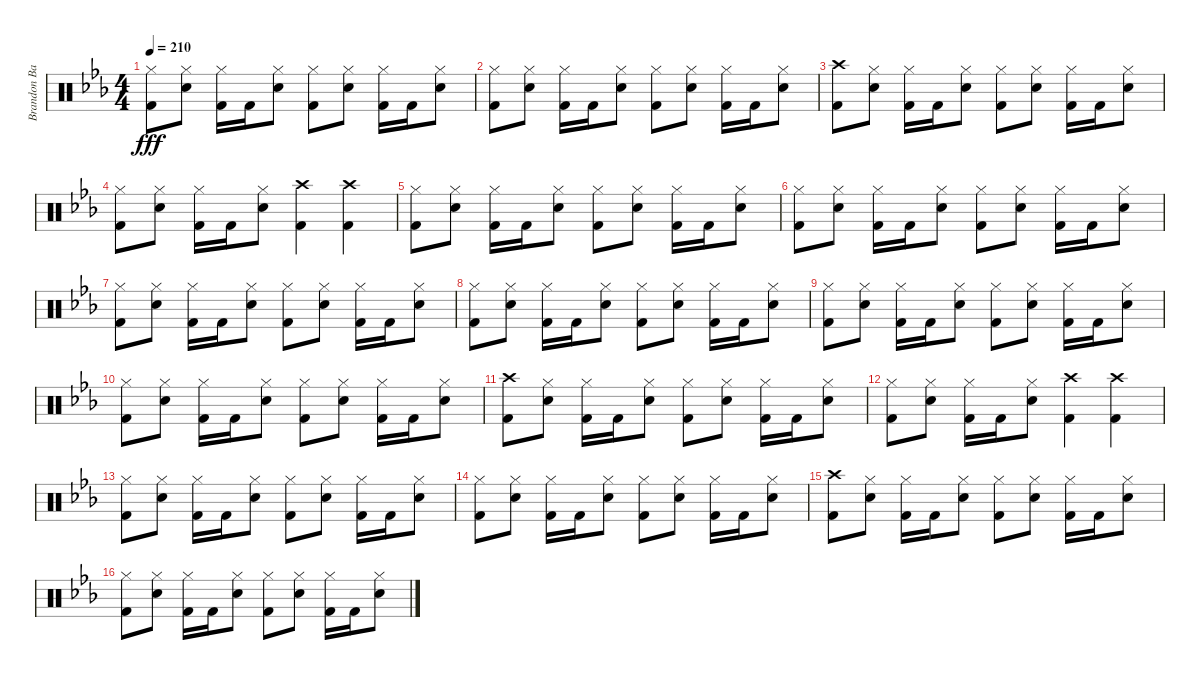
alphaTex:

\track ("Brandon Barnes" "Brandon Ba") {instrument percussion}
\staff {score}
\articulation defaults
\ts (4 4)
\tempo 210
\clef neutral
\ks eb
("Hi-Hat (closed)" "Kick (hit) 2").8{dy fff} ("Hi-Hat (closed)" "Snare (hit) 2").8 ("Hi-Hat (closed)" "Kick (hit) 2").16 "Kick (hit) 2".16 ("Hi-Hat (closed)" "Snare (hit) 2").8 ("Hi-Hat (closed)" "Kick (hit) 2").8 ("Hi-Hat (closed)" "Snare (hit) 2").8 ("Hi-Hat (closed)" "Kick (hit) 2").16 "Kick (hit) 2".16 ("Hi-Hat (closed)" "Snare (hit) 2").8 |
("Hi-Hat (closed)" "Kick (hit) 2").8 ("Hi-Hat (closed)" "Snare (hit) 2").8 ("Hi-Hat (closed)" "Kick (hit) 2").16 "Kick (hit) 2".16 ("Hi-Hat (closed)" "Snare (hit) 2").8 ("Hi-Hat (closed)" "Kick (hit) 2").8 ("Hi-Hat (closed)" "Snare (hit) 2").8 ("Hi-Hat (closed)" "Kick (hit) 2").16 "Kick (hit) 2".16 ("Hi-Hat (closed)" "Snare (hit) 2").8 |
("Crash high (hit)" "Kick (hit) 2").8 ("Hi-Hat (closed)" "Snare (hit) 2").8 ("Hi-Hat (closed)" "Kick (hit) 2").16 "Kick (hit) 2".16 ("Hi-Hat (closed)" "Snare (hit) 2").8 ("Hi-Hat (closed)" "Kick (hit) 2").8 ("Hi-Hat (closed)" "Snare (hit) 2").8 ("Hi-Hat (closed)" "Kick (hit) 2").16 "Kick (hit) 2".16 ("Hi-Hat (closed)" "Snare (hit) 2").8 |
("Hi-Hat (closed)" "Kick (hit) 2").8 ("Hi-Hat (closed)" "Snare (hit) 2").8 ("Hi-Hat (closed)" "Kick (hit) 2").16 "Kick (hit) 2".16 ("Hi-Hat (closed)" "Snare (hit) 2").8 ("Kick (hit) 2" "Crash high (hit)").4 ("Kick (hit) 2" "Crash high (hit)").4 |
("Hi-Hat (closed)" "Kick (hit) 2").8 ("Hi-Hat (closed)" "Snare (hit) 2").8 ("Hi-Hat (closed)" "Kick (hit) 2").16 "Kick (hit) 2".16 ("Hi-Hat (closed)" "Snare (hit) 2").8 ("Hi-Hat (closed)" "Kick (hit) 2").8 ("Hi-Hat (closed)" "Snare (hit) 2").8 ("Hi-Hat (closed)" "Kick (hit) 2").16 "Kick (hit) 2".16 ("Hi-Hat (closed)" "Snare (hit) 2").8 |
("Hi-Hat (closed)" "Kick (hit) 2").8 ("Hi-Hat (closed)" "Snare (hit) 2").8 ("Hi-Hat (closed)" "Kick (hit) 2").16 "Kick (hit) 2".16 ("Hi-Hat (closed)" "Snare (hit) 2").8 ("Hi-Hat (closed)" "Kick (hit) 2").8 ("Hi-Hat (closed)" "Snare (hit) 2").8 ("Hi-Hat (closed)" "Kick (hit) 2").16 "Kick (hit) 2".16 ("Hi-Hat (closed)" "Snare (hit) 2").8 |
("Hi-Hat (closed)" "Kick (hit) 2").8 ("Hi-Hat (closed)" "Snare (hit) 2").8 ("Hi-Hat (closed)" "Kick (hit) 2").16 "Kick (hit) 2".16 ("Hi-Hat (closed)" "Snare (hit) 2").8 ("Hi-Hat (closed)" "Kick (hit) 2").8 ("Hi-Hat (closed)" "Snare (hit) 2").8 ("Hi-Hat (closed)" "Kick (hit) 2").16 "Kick (hit) 2".16 ("Hi-Hat (closed)" "Snare (hit) 2").8 |
("Hi-Hat (closed)" "Kick (hit) 2").8 ("Hi-Hat (closed)" "Snare (hit) 2").8 ("Hi-Hat (closed)" "Kick (hit) 2").16 "Kick (hit) 2".16 ("Hi-Hat (closed)" "Snare (hit) 2").8 ("Hi-Hat (closed)" "Kick (hit) 2").8 ("Hi-Hat (closed)" "Snare (hit) 2").8 ("Hi-Hat (closed)" "Kick (hit) 2").16 "Kick (hit) 2".16 ("Hi-Hat (closed)" "Snare (hit) 2").8 |
("Hi-Hat (closed)" "Kick (hit) 2").8 ("Hi-Hat (closed)" "Snare (hit) 2").8 ("Hi-Hat (closed)" "Kick (hit) 2").16 "Kick (hit) 2".16 ("Hi-Hat (closed)" "Snare (hit) 2").8 ("Hi-Hat (closed)" "Kick (hit) 2").8 ("Hi-Hat (closed)" "Snare (hit) 2").8 ("Hi-Hat (closed)" "Kick (hit) 2").16 "Kick (hit) 2".16 ("Hi-Hat (closed)" "Snare (hit) 2").8 |
("Hi-Hat (closed)" "Kick (hit) 2").8 ("Hi-Hat (closed)" "Snare (hit) 2").8 ("Hi-Hat (closed)" "Kick (hit) 2").16 "Kick (hit) 2".16 ("Hi-Hat (closed)" "Snare (hit) 2").8 ("Hi-Hat (closed)" "Kick (hit) 2").8 ("Hi-Hat (closed)" "Snare (hit) 2").8 ("Hi-Hat (closed)" "Kick (hit) 2").16 "Kick (hit) 2".16 ("Hi-Hat (closed)" "Snare (hit) 2").8 |
("Crash high (hit)" "Kick (hit) 2").8 ("Hi-Hat (closed)" "Snare (hit) 2").8 ("Hi-Hat (closed)" "Kick (hit) 2").16 "Kick (hit) 2".16 ("Hi-Hat (closed)" "Snare (hit) 2").8 ("Hi-Hat (closed)" "Kick (hit) 2").8 ("Hi-Hat (closed)" "Snare (hit) 2").8 ("Hi-Hat (closed)" "Kick (hit) 2").16 "Kick (hit) 2".16 ("Hi-Hat (closed)" "Snare (hit) 2").8 |
("Hi-Hat (closed)" "Kick (hit) 2").8 ("Hi-Hat (closed)" "Snare (hit) 2").8 ("Hi-Hat (closed)" "Kick (hit) 2").16 "Kick (hit) 2".16 ("Hi-Hat (closed)" "Snare (hit) 2").8 ("Kick (hit) 2" "Crash high (hit)").4 ("Kick (hit) 2" "Crash high (hit)").4 |
("Hi-Hat (closed)" "Kick (hit) 2").8 ("Hi-Hat (closed)" "Snare (hit) 2").8 ("Hi-Hat (closed)" "Kick (hit) 2").16 "Kick (hit) 2".16 ("Hi-Hat (closed)" "Snare (hit) 2").8 ("Hi-Hat (closed)" "Kick (hit) 2").8 ("Hi-Hat (closed)" "Snare (hit) 2").8 ("Hi-Hat (closed)" "Kick (hit) 2").16 "Kick (hit) 2".16 ("Hi-Hat (closed)" "Snare (hit) 2").8 |
("Hi-Hat (closed)" "Kick (hit) 2").8 ("Hi-Hat (closed)" "Snare (hit) 2").8 ("Hi-Hat (closed)" "Kick (hit) 2").16 "Kick (hit) 2".16 ("Hi-Hat (closed)" "Snare (hit) 2").8 ("Hi-Hat (closed)" "Kick (hit) 2").8 ("Hi-Hat (closed)" "Snare (hit) 2").8 ("Hi-Hat (closed)" "Kick (hit) 2").16 "Kick (hit) 2".16 ("Hi-Hat (closed)" "Snare (hit) 2").8 |
("Crash high (hit)" "Kick (hit) 2").8 ("Hi-Hat (closed)" "Snare (hit) 2").8 ("Hi-Hat (closed)" "Kick (hit) 2").16 "Kick (hit) 2".16 ("Hi-Hat (closed)" "Snare (hit) 2").8 ("Hi-Hat (closed)" "Kick (hit) 2").8 ("Hi-Hat (closed)" "Snare (hit) 2").8 ("Hi-Hat (closed)" "Kick (hit) 2").16 "Kick (hit) 2".16 ("Hi-Hat (closed)" "Snare (hit) 2").8 |
("Hi-Hat (closed)" "Kick (hit) 2").8 ("Hi-Hat (closed)" "Snare (hit) 2").8 ("Hi-Hat (closed)" "Kick (hit) 2").16 "Kick (hit) 2".16 ("Hi-Hat (closed)" "Snare (hit) 2").8 ("Hi-Hat (closed)" "Kick (hit) 2").8 ("Hi-Hat (closed)" "Snare (hit) 2").8 ("Hi-Hat (closed)" "Kick (hit) 2").16 "Kick (hit) 2".16 ("Hi-Hat (closed)" "Snare (hit) 2").8
